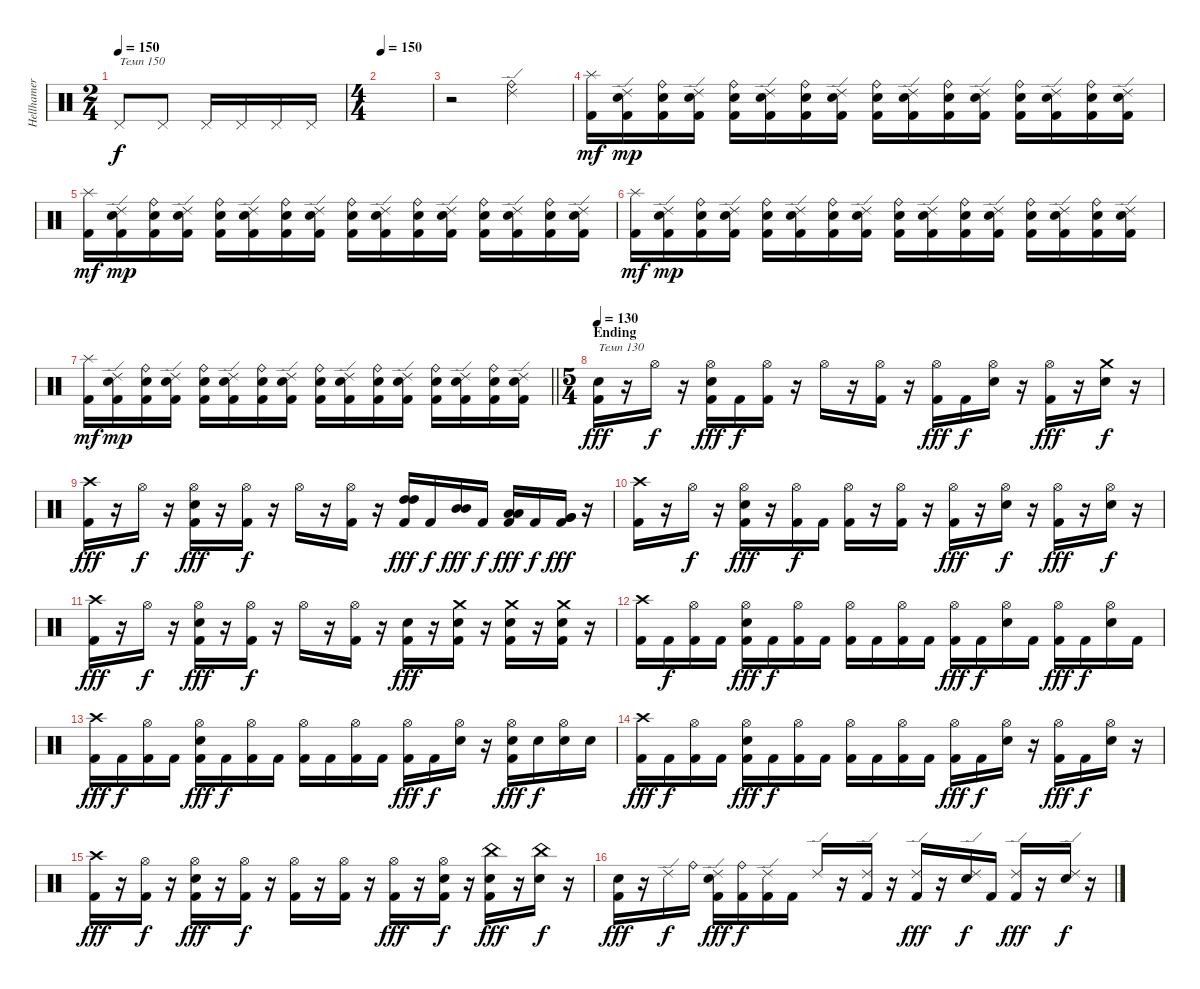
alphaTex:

\track ("Hellhamer" "Hellhamer") {instrument percussion}
\staff {score}
\articulation defaults
\ts (2 4)
\tempo 150
\clef neutral
\ks c "Pedal Hi-Hat (hit)".8{txt "Темп 150" dy f} "Pedal Hi-Hat (hit)".8 "Pedal Hi-Hat (hit)".16 "Pedal Hi-Hat (hit)".16 "Pedal Hi-Hat (hit)".16 "Pedal Hi-Hat (hit)".16
|
\ts (4 4)
\tempo 150
|
r.2 ("Ride (edge) 2" "Ride (bell)").2 |
("Splash (hit)" "Kick (hit) 2").16{dy mf} ("Ride (edge) 2" "Electric Snare (hit)" "Kick (hit) 2").16{dy mp} ("Ride (bell)" "Electric Snare (hit)" "Kick (hit) 2").16 ("Ride (edge) 2" "Electric Snare (hit)" "Kick (hit) 2").16 ("Ride (bell)" "Electric Snare (hit)" "Kick (hit) 2").16 ("Ride (edge) 2" "Electric Snare (hit)" "Kick (hit) 2").16 ("Ride (bell)" "Electric Snare (hit)" "Kick (hit) 2").16 ("Ride (edge) 2" "Electric Snare (hit)" "Kick (hit) 2").16 ("Ride (bell)" "Electric Snare (hit)" "Kick (hit) 2").16 ("Ride (edge) 2" "Electric Snare (hit)" "Kick (hit) 2").16 ("Ride (bell)" "Electric Snare (hit)" "Kick (hit) 2").16 ("Ride (edge) 2" "Electric Snare (hit)" "Kick (hit) 2").16 ("Ride (bell)" "Electric Snare (hit)" "Kick (hit) 2").16 ("Ride (edge) 2" "Electric Snare (hit)" "Kick (hit) 2").16 ("Ride (bell)" "Electric Snare (hit)" "Kick (hit) 2").16 ("Ride (edge) 2" "Electric Snare (hit)" "Kick (hit) 2").16 |
("Splash (hit)" "Kick (hit) 2").16{dy mf} ("Ride (edge) 2" "Electric Snare (hit)" "Kick (hit) 2").16{dy mp} ("Ride (bell)" "Electric Snare (hit)" "Kick (hit) 2").16 ("Ride (edge) 2" "Electric Snare (hit)" "Kick (hit) 2").16 ("Ride (bell)" "Electric Snare (hit)" "Kick (hit) 2").16 ("Ride (edge) 2" "Electric Snare (hit)" "Kick (hit) 2").16 ("Ride (bell)" "Electric Snare (hit)" "Kick (hit) 2").16 ("Ride (edge) 2" "Electric Snare (hit)" "Kick (hit) 2").16 ("Ride (bell)" "Electric Snare (hit)" "Kick (hit) 2").16 ("Ride (edge) 2" "Electric Snare (hit)" "Kick (hit) 2").16 ("Ride (bell)" "Electric Snare (hit)" "Kick (hit) 2").16 ("Ride (edge) 2" "Electric Snare (hit)" "Kick (hit) 2").16 ("Ride (bell)" "Electric Snare (hit)" "Kick (hit) 2").16 ("Ride (edge) 2" "Electric Snare (hit)" "Kick (hit) 2").16 ("Ride (bell)" "Electric Snare (hit)" "Kick (hit) 2").16 ("Ride (edge) 2" "Electric Snare (hit)" "Kick (hit) 2").16 |
("Splash (hit)" "Kick (hit) 2").16{dy mf} ("Ride (edge) 2" "Electric Snare (hit)" "Kick (hit) 2").16{dy mp} ("Ride (bell)" "Electric Snare (hit)" "Kick (hit) 2").16 ("Ride (edge) 2" "Electric Snare (hit)" "Kick (hit) 2").16 ("Ride (bell)" "Electric Snare (hit)" "Kick (hit) 2").16 ("Ride (edge) 2" "Electric Snare (hit)" "Kick (hit) 2").16 ("Ride (bell)" "Electric Snare (hit)" "Kick (hit) 2").16 ("Ride (edge) 2" "Electric Snare (hit)" "Kick (hit) 2").16 ("Ride (bell)" "Electric Snare (hit)" "Kick (hit) 2").16 ("Ride (edge) 2" "Electric Snare (hit)" "Kick (hit) 2").16 ("Ride (bell)" "Electric Snare (hit)" "Kick (hit) 2").16 ("Ride (edge) 2" "Electric Snare (hit)" "Kick (hit) 2").16 ("Ride (bell)" "Electric Snare (hit)" "Kick (hit) 2").16 ("Ride (edge) 2" "Electric Snare (hit)" "Kick (hit) 2").16 ("Ride (bell)" "Electric Snare (hit)" "Kick (hit) 2").16 ("Ride (edge) 2" "Electric Snare (hit)" "Kick (hit) 2").16 |
\barLineRight lightlight
("Splash (hit)" "Kick (hit) 2").16{dy mf} ("Ride (edge) 2" "Electric Snare (hit)" "Kick (hit) 2").16{dy mp} ("Ride (bell)" "Electric Snare (hit)" "Kick (hit) 2").16 ("Ride (edge) 2" "Electric Snare (hit)" "Kick (hit) 2").16 ("Ride (bell)" "Electric Snare (hit)" "Kick (hit) 2").16 ("Ride (edge) 2" "Electric Snare (hit)" "Kick (hit) 2").16 ("Ride (bell)" "Electric Snare (hit)" "Kick (hit) 2").16 ("Ride (edge) 2" "Electric Snare (hit)" "Kick (hit) 2").16 ("Ride (bell)" "Electric Snare (hit)" "Kick (hit) 2").16 ("Ride (edge) 2" "Electric Snare (hit)" "Kick (hit) 2").16 ("Ride (bell)" "Electric Snare (hit)" "Kick (hit) 2").16 ("Ride (edge) 2" "Electric Snare (hit)" "Kick (hit) 2").16 ("Ride (bell)" "Electric Snare (hit)" "Kick (hit) 2").16 ("Ride (edge) 2" "Electric Snare (hit)" "Kick (hit) 2").16 ("Ride (bell)" "Electric Snare (hit)" "Kick (hit) 2").16 ("Ride (edge) 2" "Electric Snare (hit)" "Kick (hit) 2").16 |
\ts (5 4)
\section ("" "Ending")
\tempo 130
("Electric Snare (hit)" "Kick (hit) 2").16{txt "Темп 130" dy fff} r.16 "Hi-Hat (open)".16{dy f} r.16 ("Hi-Hat (open)" "Electric Snare (hit)" "Kick (hit) 2").16{dy fff} "Kick (hit) 2".16{dy f} ("Hi-Hat (open)" "Kick (hit) 2").16 r.16 "Hi-Hat (open)".16 r.16 ("Hi-Hat (open)" "Kick (hit) 2").16 r.16 ("Hi-Hat (open)" "Kick (hit) 2").16{dy fff} "Kick (hit) 2".16{dy f} ("Hi-Hat (open)" "Electric Snare (hit)").16 r.16 ("Hi-Hat (open)" "Kick (hit) 2").16{dy fff} r.16 ("Crash medium (hit)" "Electric Snare (hit)").16{dy f} r.16 |
("Crash high (hit)" "Kick (hit) 2").16{dy fff} r.16 "Hi-Hat (open)".16{dy f} r.16 ("Hi-Hat (open)" "Electric Snare (hit)" "Kick (hit) 2").16{dy fff} r.16 ("Hi-Hat (open)" "Kick (hit) 2").16{dy f} r.16 "Hi-Hat (open)".16 r.16 ("Hi-Hat (open)" "Kick (hit) 2").16 r.16 ("High Tom (hit)" "High Tom (hit)" "Kick (hit) 2").16{dy fff} "Kick (hit) 2".16{dy f} ("Mid Tom (hit)" "Mid Tom (hit)").16{dy fff} "Kick (hit) 2".16{dy f} ("Low Tom (hit)" "Low Tom (hit)" "Kick (hit) 2").16{dy fff} "Kick (hit) 2".16{dy f} ("Very Low Tom (hit)" "Very Low Tom (hit)" "Kick (hit) 2").16{dy fff} r.16 |
("Crash high (hit)" "Kick (hit) 2").16 r.16 "Hi-Hat (open)".16{dy f} r.16 ("Hi-Hat (open)" "Electric Snare (hit)" "Kick (hit) 2").16{dy fff} r.16 ("Hi-Hat (open)" "Kick (hit) 2").16{dy f} "Kick (hit) 2".16 ("Hi-Hat (open)" "Kick (hit) 2").16 r.16 ("Hi-Hat (open)" "Kick (hit) 2").16 r.16 ("Hi-Hat (open)" "Kick (hit) 2").16{dy fff} r.16 ("Hi-Hat (open)" "Electric Snare (hit)").16{dy f} r.16 ("Hi-Hat (open)" "Kick (hit) 2").16{dy fff} r.16 ("Hi-Hat (open)" "Electric Snare (hit)").16{dy f} r.16 |
("Crash high (hit)" "Kick (hit) 2").16{dy fff} r.16 "Hi-Hat (open)".16{dy f} r.16 ("Hi-Hat (open)" "Electric Snare (hit)" "Kick (hit) 2").16{dy fff} r.16 ("Hi-Hat (open)" "Kick (hit) 2").16{dy f} r.16 "Hi-Hat (open)".16 r.16 ("Hi-Hat (open)" "Kick (hit) 2").16 r.16 ("Electric Snare (hit)" "Kick (hit) 2").16{dy fff} r.16 ("Crash medium (hit)" "Electric Snare (hit)" "Kick (hit) 2").16 r.16 ("Crash medium (hit)" "Electric Snare (hit)" "Kick (hit) 2").16 r.16 ("Crash medium (hit)" "Electric Snare (hit)" "Kick (hit) 2").16 r.16 |
("Crash high (hit)" "Kick (hit) 2").16 "Kick (hit) 2".16{dy f} ("Hi-Hat (open)" "Kick (hit) 2").16 "Kick (hit) 2".16 ("Hi-Hat (open)" "Electric Snare (hit)" "Kick (hit) 2").16{dy fff} "Kick (hit) 2".16{dy f} ("Hi-Hat (open)" "Kick (hit) 2").16 "Kick (hit) 2".16 ("Hi-Hat (open)" "Kick (hit) 2").16 "Kick (hit) 2".16 ("Hi-Hat (open)" "Kick (hit) 2").16 "Kick (hit) 2".16 ("Hi-Hat (open)" "Kick (hit) 2").16{dy fff} "Kick (hit) 2".16{dy f} ("Hi-Hat (open)" "Electric Snare (hit)").16 "Kick (hit) 2".16 ("Hi-Hat (open)" "Kick (hit) 2").16{dy fff} "Kick (hit) 2".16{dy f} ("Hi-Hat (open)" "Electric Snare (hit)").16 "Kick (hit) 2".16 |
("Crash high (hit)" "Kick (hit) 2").16{dy fff} "Kick (hit) 2".16{dy f} ("Hi-Hat (open)" "Kick (hit) 2").16 "Kick (hit) 2".16 ("Hi-Hat (open)" "Electric Snare (hit)" "Kick (hit) 2").16{dy fff} "Kick (hit) 2".16{dy f} ("Hi-Hat (open)" "Kick (hit) 2").16 "Kick (hit) 2".16 ("Hi-Hat (open)" "Kick (hit) 2").16 "Kick (hit) 2".16 ("Hi-Hat (open)" "Kick (hit) 2").16 "Kick (hit) 2".16 ("Hi-Hat (open)" "Kick (hit) 2").16{dy fff} "Kick (hit) 2".16{dy f} ("Hi-Hat (open)" "Electric Snare (hit)").16 r.16 ("Hi-Hat (open)" "Electric Snare (hit)" "Kick (hit) 2").16{dy fff} "Electric Snare (hit)".16{dy f} ("Hi-Hat (open)" "Electric Snare (hit)").16 "Electric Snare (hit)".16 |
("Crash high (hit)" "Kick (hit) 2").16{dy fff} "Kick (hit) 2".16{dy f} ("Hi-Hat (open)" "Kick (hit) 2").16 "Kick (hit) 2".16 ("Hi-Hat (open)" "Electric Snare (hit)" "Kick (hit) 2").16{dy fff} "Kick (hit) 2".16{dy f} ("Hi-Hat (open)" "Kick (hit) 2").16 "Kick (hit) 2".16 ("Hi-Hat (open)" "Kick (hit) 2").16 "Kick (hit) 2".16 ("Hi-Hat (open)" "Kick (hit) 2").16 "Kick (hit) 2".16 ("Hi-Hat (open)" "Kick (hit) 2").16{dy fff} "Kick (hit) 2".16{dy f} ("Hi-Hat (open)" "Electric Snare (hit)").16 r.16 ("Hi-Hat (open)" "Kick (hit) 2").16{dy fff} "Kick (hit) 2".16{dy f} ("Hi-Hat (open)" "Electric Snare (hit)").16 r.16 |
("Crash high (hit)" "Kick (hit) 2").16{dy fff} r.16 ("Hi-Hat (open)" "Kick (hit) 2").16{dy f} r.16 ("Hi-Hat (open)" "Electric Snare (hit)" "Kick (hit) 2").16{dy fff} r.16 ("Hi-Hat (open)" "Kick (hit) 2").16{dy f} r.16 ("Hi-Hat (open)" "Kick (hit) 2").16 r.16 ("Hi-Hat (open)" "Kick (hit) 2").16 r.16 ("Hi-Hat (open)" "Kick (hit) 2").16{dy fff} r.16 ("Hi-Hat (open)" "Electric Snare (hit)" "Kick (hit) 2").16{dy f} r.16 ("China (hit)" "Electric Snare (hit)" "Kick (hit) 2").16{dy fff} r.16 ("China (hit)" "Electric Snare (hit)").16{dy f} r.16 |
("Electric Snare (hit)" "Kick (hit) 2").16{dy fff} r.16 "Ride (edge) 2".16{dy f} "Ride (bell)".16 ("Ride (edge) 2" "Electric Snare (hit)" "Kick (hit) 2").16{dy fff} ("Ride (bell)" "Kick (hit) 2").16{dy f} ("Ride (edge) 2" "Kick (hit) 2").16 "Kick (hit) 2".16 "Ride (edge) 2".16 r.16 ("Ride (edge) 2" "Kick (hit) 2").16 r.16 ("Ride (edge) 2" "Kick (hit) 2").16{dy fff} r.16 ("Ride (edge) 2" "Electric Snare (hit)").16{dy f} "Kick (hit) 2".16 ("Ride (edge) 2" "Kick (hit) 2").16{dy fff} r.16 ("Ride (edge) 2" "Electric Snare (hit)").16{dy f} r.16
